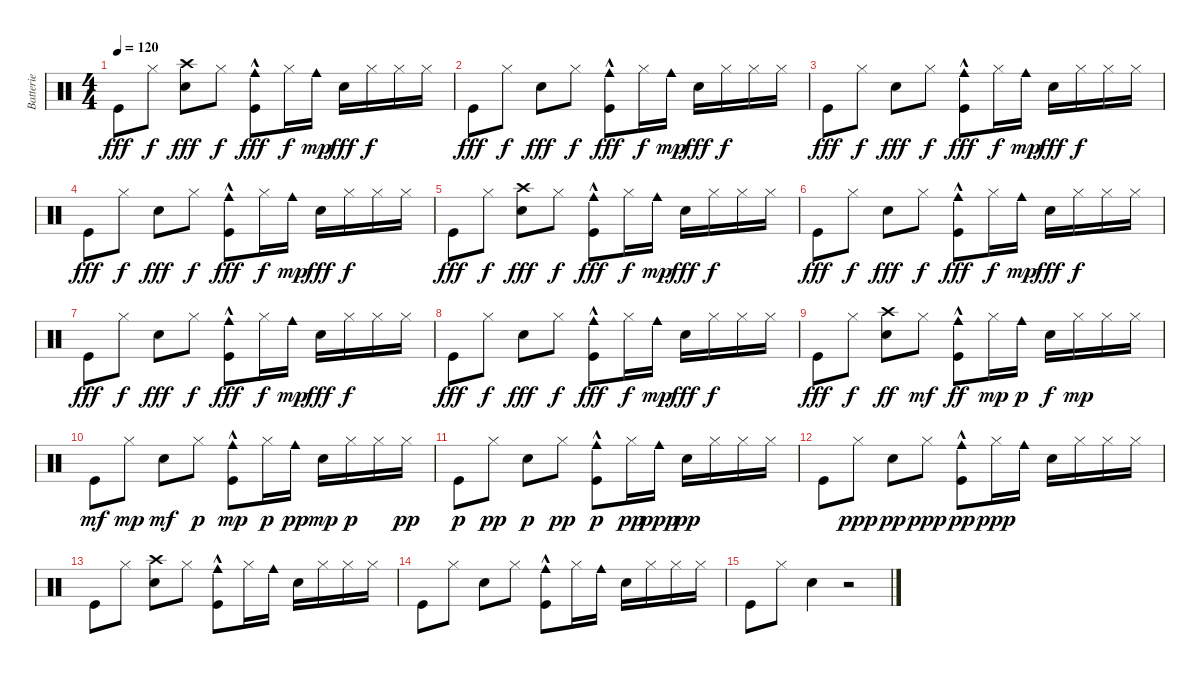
\track ("Batterie" "Batterie") {instrument percussion}
\staff {score}
\articulation defaults
\ts (4 4)
\tempo 120
\clef neutral
\ks c "Kick (hit)".8{dy fff} "Hi-Hat (closed)".8{dy f}
("Crash high (hit)" "Snare (hit) 2").8{dy fff} "Hi-Hat (closed)".8{dy f} ("Cowbell medium (hit)"{hac} "Kick (hit)").8{dy fff} "Hi-Hat (closed)".16{dy f} "Cowbell medium (hit)".16{dy mp} "Snare (hit) 2".16{dy fff} "Hi-Hat (closed)".16{dy f} "Hi-Hat (closed)".16 "Hi-Hat (closed)".16 |
"Kick (hit)".8{dy fff} "Hi-Hat (closed)".8{dy f} "Snare (hit) 2".8{dy fff} "Hi-Hat (closed)".8{dy f} ("Cowbell medium (hit)"{hac} "Kick (hit)").8{dy fff} "Hi-Hat (closed)".16{dy f} "Cowbell medium (hit)".16{dy mp} "Snare (hit) 2".16{dy fff} "Hi-Hat (closed)".16{dy f} "Hi-Hat (closed)".16 "Hi-Hat (closed)".16 |
"Kick (hit)".8{dy fff} "Hi-Hat (closed)".8{dy f} "Snare (hit) 2".8{dy fff} "Hi-Hat (closed)".8{dy f} ("Cowbell medium (hit)"{hac} "Kick (hit)").8{dy fff} "Hi-Hat (closed)".16{dy f} "Cowbell medium (hit)".16{dy mp} "Snare (hit) 2".16{dy fff} "Hi-Hat (closed)".16{dy f} "Hi-Hat (closed)".16 "Hi-Hat (closed)".16 |
"Kick (hit)".8{dy fff} "Hi-Hat (closed)".8{dy f} "Snare (hit) 2".8{dy fff} "Hi-Hat (closed)".8{dy f} ("Cowbell medium (hit)"{hac} "Kick (hit)").8{dy fff} "Hi-Hat (closed)".16{dy f} "Cowbell medium (hit)".16{dy mp} "Snare (hit) 2".16{dy fff} "Hi-Hat (closed)".16{dy f} "Hi-Hat (closed)".16 "Hi-Hat (closed)".16 |
"Kick (hit)".8{dy fff} "Hi-Hat (closed)".8{dy f} ("Crash high (hit)" "Snare (hit) 2").8{dy fff} "Hi-Hat (closed)".8{dy f} ("Cowbell medium (hit)"{hac} "Kick (hit)").8{dy fff} "Hi-Hat (closed)".16{dy f} "Cowbell medium (hit)".16{dy mp} "Snare (hit) 2".16{dy fff} "Hi-Hat (closed)".16{dy f} "Hi-Hat (closed)".16 "Hi-Hat (closed)".16 |
"Kick (hit)".8{dy fff} "Hi-Hat (closed)".8{dy f} "Snare (hit) 2".8{dy fff} "Hi-Hat (closed)".8{dy f} ("Cowbell medium (hit)"{hac} "Kick (hit)").8{dy fff} "Hi-Hat (closed)".16{dy f} "Cowbell medium (hit)".16{dy mp} "Snare (hit) 2".16{dy fff} "Hi-Hat (closed)".16{dy f} "Hi-Hat (closed)".16 "Hi-Hat (closed)".16 |
"Kick (hit)".8{dy fff} "Hi-Hat (closed)".8{dy f} "Snare (hit) 2".8{dy fff} "Hi-Hat (closed)".8{dy f} ("Cowbell medium (hit)"{hac} "Kick (hit)").8{dy fff} "Hi-Hat (closed)".16{dy f} "Cowbell medium (hit)".16{dy mp} "Snare (hit) 2".16{dy fff} "Hi-Hat (closed)".16{dy f} "Hi-Hat (closed)".16 "Hi-Hat (closed)".16 |
"Kick (hit)".8{dy fff} "Hi-Hat (closed)".8{dy f} "Snare (hit) 2".8{dy fff} "Hi-Hat (closed)".8{dy f} ("Cowbell medium (hit)"{hac} "Kick (hit)").8{dy fff} "Hi-Hat (closed)".16{dy f} "Cowbell medium (hit)".16{dy mp} "Snare (hit) 2".16{dy fff} "Hi-Hat (closed)".16{dy f} "Hi-Hat (closed)".16 "Hi-Hat (closed)".16 |
"Kick (hit)".8{dy fff} "Hi-Hat (closed)".8{dy f} ("Crash high (hit)" "Snare (hit) 2").8{dy ff} "Hi-Hat (closed)".8{dy mf} ("Cowbell medium (hit)"{hac} "Kick (hit)").8{dy ff} "Hi-Hat (closed)".16{dy mp} "Cowbell medium (hit)".16{dy p} "Snare (hit) 2".16{dy f} "Hi-Hat (closed)".16{dy mp} "Hi-Hat (closed)".16 "Hi-Hat (closed)".16 |
"Kick (hit)".8{dy mf} "Hi-Hat (closed)".8{dy mp} "Snare (hit) 2".8{dy mf} "Hi-Hat (closed)".8{dy p} ("Cowbell medium (hit)"{hac} "Kick (hit)").8{dy mp} "Hi-Hat (closed)".16{dy p} "Cowbell medium (hit)".16{dy pp} "Snare (hit) 2".16{dy mp} "Hi-Hat (closed)".16{dy p} "Hi-Hat (closed)".16 "Hi-Hat (closed)".16{dy pp} |
"Kick (hit)".8{dy p} "Hi-Hat (closed)".8{dy pp} "Snare (hit) 2".8{dy p} "Hi-Hat (closed)".8{dy pp} ("Cowbell medium (hit)"{hac} "Kick (hit)").8{dy p} "Hi-Hat (closed)".16{dy pp} "Cowbell medium (hit)".16{dy ppp} "Snare (hit) 2".16{dy pp} "Hi-Hat (closed)".16 "Hi-Hat (closed)".16 "Hi-Hat (closed)".16 |
"Kick (hit)".8 "Hi-Hat (closed)".8{dy ppp} "Snare (hit) 2".8{dy pp} "Hi-Hat (closed)".8{dy ppp} ("Cowbell medium (hit)"{hac} "Kick (hit)").8{dy pp} "Hi-Hat (closed)".16{dy ppp} "Cowbell medium (hit)".16 "Snare (hit) 2".16 "Hi-Hat (closed)".16 "Hi-Hat (closed)".16 "Hi-Hat (closed)".16 |
"Kick (hit)".8 "Hi-Hat (closed)".8 ("Crash high (hit)" "Snare (hit) 2").8 "Hi-Hat (closed)".8 ("Cowbell medium (hit)"{hac} "Kick (hit)").8 "Hi-Hat (closed)".16 "Cowbell medium (hit)".16 "Snare (hit) 2".16 "Hi-Hat (closed)".16 "Hi-Hat (closed)".16 "Hi-Hat (closed)".16 |
"Kick (hit)".8{volume 0} "Hi-Hat (closed)".8 "Snare (hit) 2".8 "Hi-Hat (closed)".8 ("Cowbell medium (hit)"{hac} "Kick (hit)").8 "Hi-Hat (closed)".16 "Cowbell medium (hit)".16 "Snare (hit) 2".16 "Hi-Hat (closed)".16 "Hi-Hat (closed)".16 "Hi-Hat (closed)".16 |
"Kick (hit)".8 "Hi-Hat (closed)".8 "Snare (hit) 2".4 r.2
